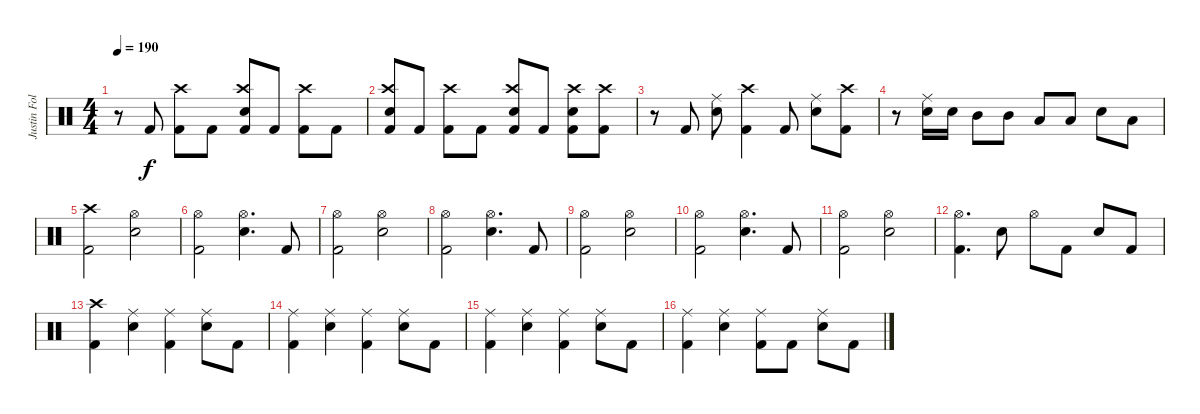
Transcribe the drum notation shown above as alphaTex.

\track ("Justin Foley" "Justin Fol") {instrument percussion}
\staff {score}
\articulation defaults
\ts (4 4)
\tempo 190
\clef neutral
\ks c
r.8{dy f} "Kick (hit) 2".8 ("Crash high (hit)" "Kick (hit) 2").8 "Kick (hit) 2".8 ("Crash high (hit)" "Electric Snare (hit)" "Kick (hit) 2").8 "Kick (hit) 2".8 ("Crash high (hit)" "Kick (hit) 2").8 "Kick (hit) 2".8 |
("Crash high (hit)" "Electric Snare (hit)" "Kick (hit) 2").8 "Kick (hit) 2".8 ("Crash high (hit)" "Kick (hit) 2").8 "Kick (hit) 2".8 ("Crash high (hit)" "Electric Snare (hit)" "Kick (hit) 2").8 "Kick (hit) 2".8 ("Crash high (hit)" "Electric Snare (hit)" "Kick (hit) 2").8 ("Crash high (hit)" "Kick (hit) 2").8 |
r.8 "Kick (hit) 2".8 ("Ride (middle)" "Electric Snare (hit)").8 ("Crash high (hit)" "Kick (hit) 2").4 "Kick (hit) 2".8 ("Ride (middle)" "Electric Snare (hit)").8 ("Crash high (hit)" "Kick (hit) 2").8 |
r.8 ("Ride (middle)" "Electric Snare (hit)").16 "Electric Snare (hit)".16 "Mid Tom (hit)".8 "Mid Tom (hit)".8 "Low Tom (hit)".8 "Low Tom (hit)".8 "Electric Snare (hit)".8 "Low Tom (hit)".8 |
("Crash high (hit)" "Kick (hit) 2").2 ("Hi-Hat (open)" "Electric Snare (hit)").2 |
("Hi-Hat (open)" "Kick (hit) 2").2 ("Hi-Hat (open)" "Electric Snare (hit)").4{d} "Kick (hit) 2".8 |
("Hi-Hat (open)" "Kick (hit) 2").2 ("Hi-Hat (open)" "Electric Snare (hit)").2 |
("Hi-Hat (open)" "Kick (hit) 2").2 ("Hi-Hat (open)" "Electric Snare (hit)").4{d} "Kick (hit) 2".8 |
("Hi-Hat (open)" "Kick (hit) 2").2 ("Hi-Hat (open)" "Electric Snare (hit)").2 |
("Hi-Hat (open)" "Kick (hit) 2").2 ("Hi-Hat (open)" "Electric Snare (hit)").4{d} "Kick (hit) 2".8 |
("Hi-Hat (open)" "Kick (hit) 2").2 ("Hi-Hat (open)" "Electric Snare (hit)").2 |
("Hi-Hat (open)" "Kick (hit) 2").4{d} "Electric Snare (hit)".8 "Hi-Hat (open)".8 "Kick (hit) 2".8 "Electric Snare (hit)".8 "Kick (hit) 2".8 |
("Crash high (hit)" "Kick (hit) 2").4 ("Ride (middle)" "Electric Snare (hit)").4 ("Ride (middle)" "Kick (hit) 2").4 ("Ride (middle)" "Electric Snare (hit)").8 "Kick (hit) 2".8 |
("Ride (middle)" "Kick (hit) 2").4 ("Ride (middle)" "Electric Snare (hit)").4 ("Ride (middle)" "Kick (hit) 2").4 ("Ride (middle)" "Electric Snare (hit)").8 "Kick (hit) 2".8 |
("Ride (middle)" "Kick (hit) 2").4 ("Ride (middle)" "Electric Snare (hit)").4 ("Ride (middle)" "Kick (hit) 2").4 ("Ride (middle)" "Electric Snare (hit)").8 "Kick (hit) 2".8 |
("Ride (middle)" "Kick (hit) 2").4 ("Ride (middle)" "Electric Snare (hit)").4 ("Ride (middle)" "Kick (hit) 2").8 "Kick (hit) 2".8 ("Ride (middle)" "Electric Snare (hit)").8 "Kick (hit) 2".8
